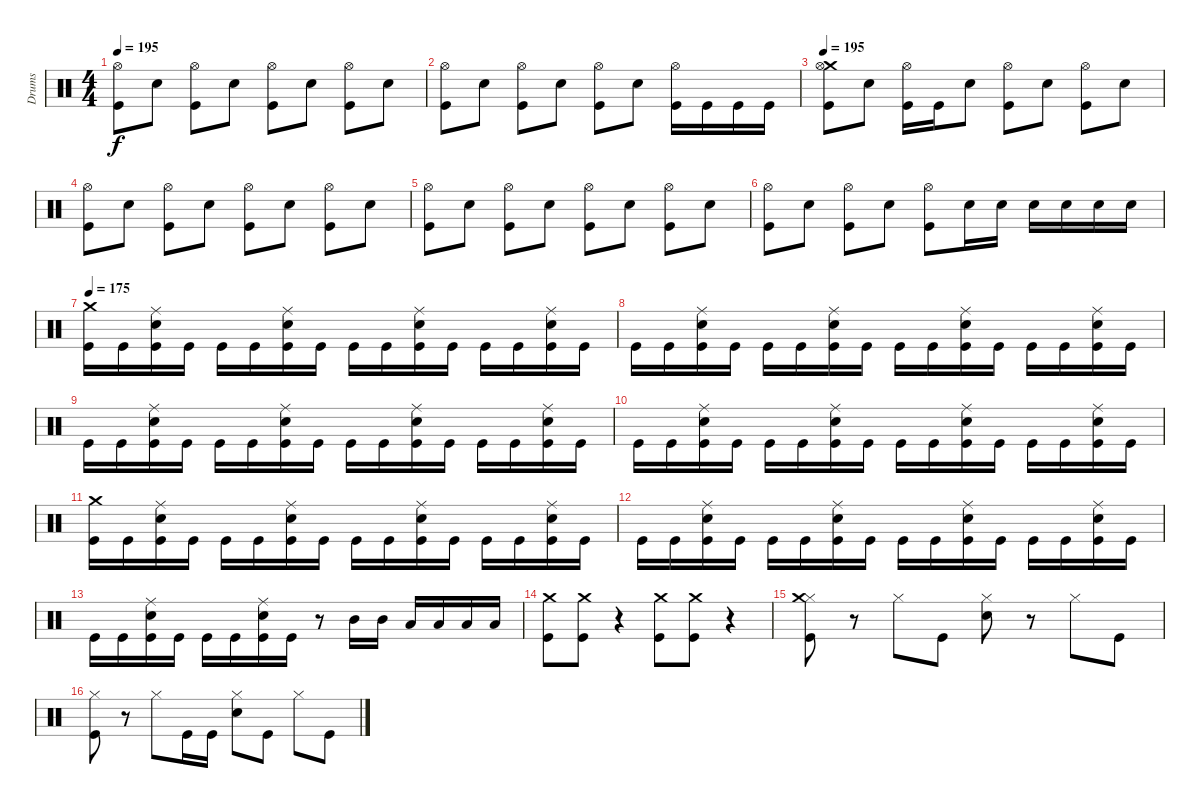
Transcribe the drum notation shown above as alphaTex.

\track ("Drums" "Drums") {instrument percussion}
\staff {score}
\articulation defaults
\ts (4 4)
\tempo 195
\clef neutral
\ks c
("Hi-Hat (open)" "Kick (hit)").8{dy f} "Snare (hit) 2".8 ("Hi-Hat (open)" "Kick (hit)").8 "Snare (hit) 2".8 ("Hi-Hat (open)" "Kick (hit)").8 "Snare (hit) 2".8 ("Hi-Hat (open)" "Kick (hit)").8 "Snare (hit) 2".8 |
("Hi-Hat (open)" "Kick (hit)").8 "Snare (hit) 2".8 ("Hi-Hat (open)" "Kick (hit)").8 "Snare (hit) 2".8 ("Hi-Hat (open)" "Kick (hit)").8 "Snare (hit) 2".8 ("Hi-Hat (open)" "Kick (hit)").16 "Kick (hit)".16 "Kick (hit)".16 "Kick (hit)".16 |
\tempo 195
("Crash medium (hit)" "Hi-Hat (open)" "Kick (hit)").8 "Snare (hit) 2".8 ("Hi-Hat (open)" "Kick (hit)").16 "Kick (hit)".16 "Snare (hit) 2".8 ("Hi-Hat (open)" "Kick (hit)").8 "Snare (hit) 2".8 ("Hi-Hat (open)" "Kick (hit)").8 "Snare (hit) 2".8 |
("Hi-Hat (open)" "Kick (hit)").8 "Snare (hit) 2".8 ("Hi-Hat (open)" "Kick (hit)").8 "Snare (hit) 2".8 ("Hi-Hat (open)" "Kick (hit)").8 "Snare (hit) 2".8 ("Hi-Hat (open)" "Kick (hit)").8 "Snare (hit) 2".8 |
("Hi-Hat (open)" "Kick (hit)").8 "Snare (hit) 2".8 ("Hi-Hat (open)" "Kick (hit)").8 "Snare (hit) 2".8 ("Hi-Hat (open)" "Kick (hit)").8 "Snare (hit) 2".8 ("Hi-Hat (open)" "Kick (hit)").8 "Snare (hit) 2".8 |
("Hi-Hat (open)" "Kick (hit)").8 "Snare (hit) 2".8 ("Hi-Hat (open)" "Kick (hit)").8 "Snare (hit) 2".8 ("Hi-Hat (open)" "Kick (hit)").8 "Snare (hit) 2".16 "Snare (hit) 2".16 "Snare (hit) 2".16 "Snare (hit) 2".16 "Snare (hit) 2".16 "Snare (hit) 2".16 |
\tempo 175
("Crash medium (hit)" "Kick (hit)").16 "Kick (hit)".16 ("Ride (middle)" "Snare (hit) 2" "Kick (hit)").16 "Kick (hit)".16 "Kick (hit)".16 "Kick (hit)".16 ("Ride (middle)" "Snare (hit) 2" "Kick (hit)").16 "Kick (hit)".16 "Kick (hit)".16 "Kick (hit)".16 ("Ride (middle)" "Snare (hit) 2" "Kick (hit)").16 "Kick (hit)".16 "Kick (hit)".16 "Kick (hit)".16 ("Ride (middle)" "Snare (hit) 2" "Kick (hit)").16 "Kick (hit)".16 |
"Kick (hit)".16 "Kick (hit)".16 ("Ride (middle)" "Snare (hit) 2" "Kick (hit)").16 "Kick (hit)".16 "Kick (hit)".16 "Kick (hit)".16 ("Ride (middle)" "Snare (hit) 2" "Kick (hit)").16 "Kick (hit)".16 "Kick (hit)".16 "Kick (hit)".16 ("Ride (middle)" "Snare (hit) 2" "Kick (hit)").16 "Kick (hit)".16 "Kick (hit)".16 "Kick (hit)".16 ("Ride (middle)" "Snare (hit) 2" "Kick (hit)").16 "Kick (hit)".16 |
"Kick (hit)".16 "Kick (hit)".16 ("Ride (middle)" "Snare (hit) 2" "Kick (hit)").16 "Kick (hit)".16 "Kick (hit)".16 "Kick (hit)".16 ("Ride (middle)" "Snare (hit) 2" "Kick (hit)").16 "Kick (hit)".16 "Kick (hit)".16 "Kick (hit)".16 ("Ride (middle)" "Snare (hit) 2" "Kick (hit)").16 "Kick (hit)".16 "Kick (hit)".16 "Kick (hit)".16 ("Ride (middle)" "Snare (hit) 2" "Kick (hit)").16 "Kick (hit)".16 |
"Kick (hit)".16 "Kick (hit)".16 ("Ride (middle)" "Snare (hit) 2" "Kick (hit)").16 "Kick (hit)".16 "Kick (hit)".16 "Kick (hit)".16 ("Ride (middle)" "Snare (hit) 2" "Kick (hit)").16 "Kick (hit)".16 "Kick (hit)".16 "Kick (hit)".16 ("Ride (middle)" "Snare (hit) 2" "Kick (hit)").16 "Kick (hit)".16 "Kick (hit)".16 "Kick (hit)".16 ("Ride (middle)" "Snare (hit) 2" "Kick (hit)").16 "Kick (hit)".16 |
("Crash medium (hit)" "Kick (hit)").16 "Kick (hit)".16 ("Ride (middle)" "Snare (hit) 2" "Kick (hit)").16 "Kick (hit)".16 "Kick (hit)".16 "Kick (hit)".16 ("Ride (middle)" "Snare (hit) 2" "Kick (hit)").16 "Kick (hit)".16 "Kick (hit)".16 "Kick (hit)".16 ("Ride (middle)" "Snare (hit) 2" "Kick (hit)").16 "Kick (hit)".16 "Kick (hit)".16 "Kick (hit)".16 ("Ride (middle)" "Snare (hit) 2" "Kick (hit)").16 "Kick (hit)".16 |
"Kick (hit)".16 "Kick (hit)".16 ("Ride (middle)" "Snare (hit) 2" "Kick (hit)").16 "Kick (hit)".16 "Kick (hit)".16 "Kick (hit)".16 ("Ride (middle)" "Snare (hit) 2" "Kick (hit)").16 "Kick (hit)".16 "Kick (hit)".16 "Kick (hit)".16 ("Ride (middle)" "Snare (hit) 2" "Kick (hit)").16 "Kick (hit)".16 "Kick (hit)".16 "Kick (hit)".16 ("Ride (middle)" "Snare (hit) 2" "Kick (hit)").16 "Kick (hit)".16 |
"Kick (hit)".16 "Kick (hit)".16 ("Ride (middle)" "Snare (hit) 2" "Kick (hit)").16 "Kick (hit)".16 "Kick (hit)".16 "Kick (hit)".16 ("Ride (middle)" "Snare (hit) 2" "Kick (hit)").16 "Kick (hit)".16 r.8 "Mid Tom (hit)".16 "Mid Tom (hit)".16 "Low Tom (hit)".16 "Low Tom (hit)".16 "Low Tom (hit)".16 "Low Tom (hit)".16 |
("Crash medium (hit)" "Kick (hit)").8 ("Crash medium (hit)" "Kick (hit)").8 r.4 ("Crash medium (hit)" "Kick (hit)").8 ("Crash medium (hit)" "Kick (hit)").8 r.4 |
("Hi-Hat (closed)" "Crash medium (hit)" "Kick (hit)").8 r.8 "Hi-Hat (closed)".8 "Kick (hit)".8 ("Hi-Hat (closed)" "Snare (hit) 2").8 r.8 "Hi-Hat (closed)".8 "Kick (hit)".8 |
("Hi-Hat (closed)" "Kick (hit)").8 r.8 "Hi-Hat (closed)".8 "Kick (hit)".16 "Kick (hit)".16 ("Hi-Hat (closed)" "Snare (hit) 2").8 "Kick (hit)".8 "Hi-Hat (closed)".8 "Kick (hit)".8
